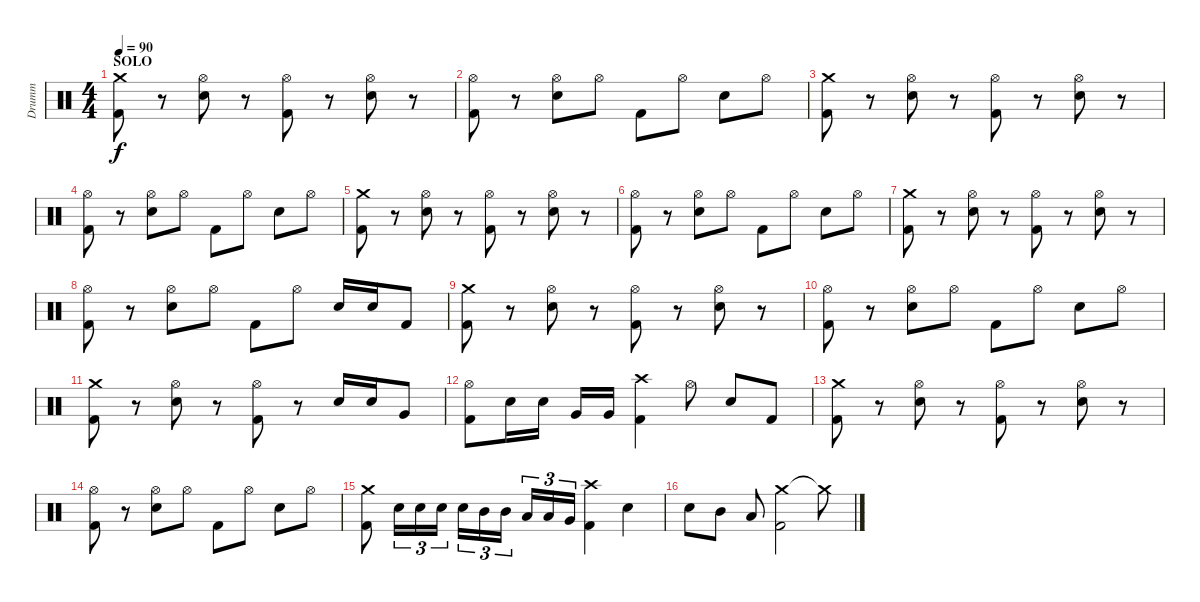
\track ("Drumm" "Drumm") {instrument percussion}
\staff {score}
\articulation defaults
\ts (4 4)
\section ("" "SOLO")
\tempo 90
\clef neutral
\ks c
("Crash medium (hit)" "Kick (hit) 2").8{dy f} r.8 ("Hi-Hat (open)" "Snare (hit) 2").8 r.8 ("Hi-Hat (open)" "Kick (hit) 2").8 r.8 ("Hi-Hat (open)" "Snare (hit) 2").8 r.8 |
("Hi-Hat (open)" "Kick (hit) 2").8 r.8 ("Hi-Hat (open)" "Snare (hit) 2").8 "Hi-Hat (open)".8 "Kick (hit) 2".8 "Hi-Hat (open)".8 "Snare (hit) 2".8 "Hi-Hat (open)".8 |
("Crash medium (hit)" "Kick (hit) 2").8 r.8 ("Hi-Hat (open)" "Snare (hit) 2").8 r.8 ("Hi-Hat (open)" "Kick (hit) 2").8 r.8 ("Hi-Hat (open)" "Snare (hit) 2").8 r.8 |
("Hi-Hat (open)" "Kick (hit) 2").8 r.8 ("Hi-Hat (open)" "Snare (hit) 2").8 "Hi-Hat (open)".8 "Kick (hit) 2".8 "Hi-Hat (open)".8 "Snare (hit) 2".8 "Hi-Hat (open)".8 |
("Crash medium (hit)" "Kick (hit) 2").8 r.8 ("Hi-Hat (open)" "Snare (hit) 2").8 r.8 ("Hi-Hat (open)" "Kick (hit) 2").8 r.8 ("Hi-Hat (open)" "Snare (hit) 2").8 r.8 |
("Hi-Hat (open)" "Kick (hit) 2").8 r.8 ("Hi-Hat (open)" "Snare (hit) 2").8 "Hi-Hat (open)".8 "Kick (hit) 2".8 "Hi-Hat (open)".8 "Snare (hit) 2".8 "Hi-Hat (open)".8 |
("Crash medium (hit)" "Kick (hit) 2").8 r.8 ("Hi-Hat (open)" "Snare (hit) 2").8 r.8 ("Hi-Hat (open)" "Kick (hit) 2").8 r.8 ("Hi-Hat (open)" "Snare (hit) 2").8 r.8 |
("Hi-Hat (open)" "Kick (hit) 2").8 r.8 ("Hi-Hat (open)" "Snare (hit) 2").8 "Hi-Hat (open)".8 "Kick (hit) 2".8 "Hi-Hat (open)".8 "Snare (hit) 2".16 "Snare (hit) 2".16 "Kick (hit) 2".8 |
("Crash medium (hit)" "Kick (hit) 2").8 r.8 ("Hi-Hat (open)" "Snare (hit) 2").8 r.8 ("Hi-Hat (open)" "Kick (hit) 2").8 r.8 ("Hi-Hat (open)" "Snare (hit) 2").8 r.8 |
("Hi-Hat (open)" "Kick (hit) 2").8 r.8 ("Hi-Hat (open)" "Snare (hit) 2").8 "Hi-Hat (open)".8 "Kick (hit) 2".8 "Hi-Hat (open)".8 "Snare (hit) 2".8 "Hi-Hat (open)".8 |
("Crash medium (hit)" "Kick (hit) 2").8 r.8 ("Hi-Hat (open)" "Snare (hit) 2").8 r.8 ("Hi-Hat (open)" "Kick (hit) 2").8 r.8 "Snare (hit) 2".16 "Snare (hit) 2".16 "Very Low Tom (hit)".8 |
("Hi-Hat (open)" "Kick (hit) 2").8 "Snare (hit) 2".16 "Snare (hit) 2".16 "Very Low Tom (hit)".16 "Very Low Tom (hit)".16 ("Crash high (hit)" "Kick (hit) 2").4 "Hi-Hat (open)".8 "Snare (hit) 2".8 "Kick (hit) 2".8 |
("Crash medium (hit)" "Kick (hit) 2").8 r.8 ("Hi-Hat (open)" "Snare (hit) 2").8 r.8 ("Hi-Hat (open)" "Kick (hit) 2").8 r.8 ("Hi-Hat (open)" "Snare (hit) 2").8 r.8 |
("Hi-Hat (open)" "Kick (hit) 2").8 r.8 ("Hi-Hat (open)" "Snare (hit) 2").8 "Hi-Hat (open)".8 "Kick (hit) 2".8 "Hi-Hat (open)".8 "Snare (hit) 2".8 "Hi-Hat (open)".8 |
("Crash medium (hit)" "Kick (hit) 2").8 "Snare (hit) 2".16{tu (3 2)} "Snare (hit) 2".16{tu (3 2)} "Snare (hit) 2".16{tu (3 2)} "Snare (hit) 2".16{tu (3 2)} "Mid Tom (hit)".16{tu (3 2)} "Mid Tom (hit)".16{tu (3 2) beam splitsecondary} "Low Tom (hit)".16{tu (3 2)} "Low Tom (hit)".16{tu (3 2)} "Very Low Tom (hit)".16{tu (3 2)} ("Crash high (hit)" "Kick (hit) 2").4 "Snare (hit) 2".4 |
"Snare (hit) 2".8 "Mid Tom (hit)".8 "Low Tom (hit)".8 ("Crash medium (hit)" "Kick (hit) 2").2 "Crash medium (hit)"{t}.8
